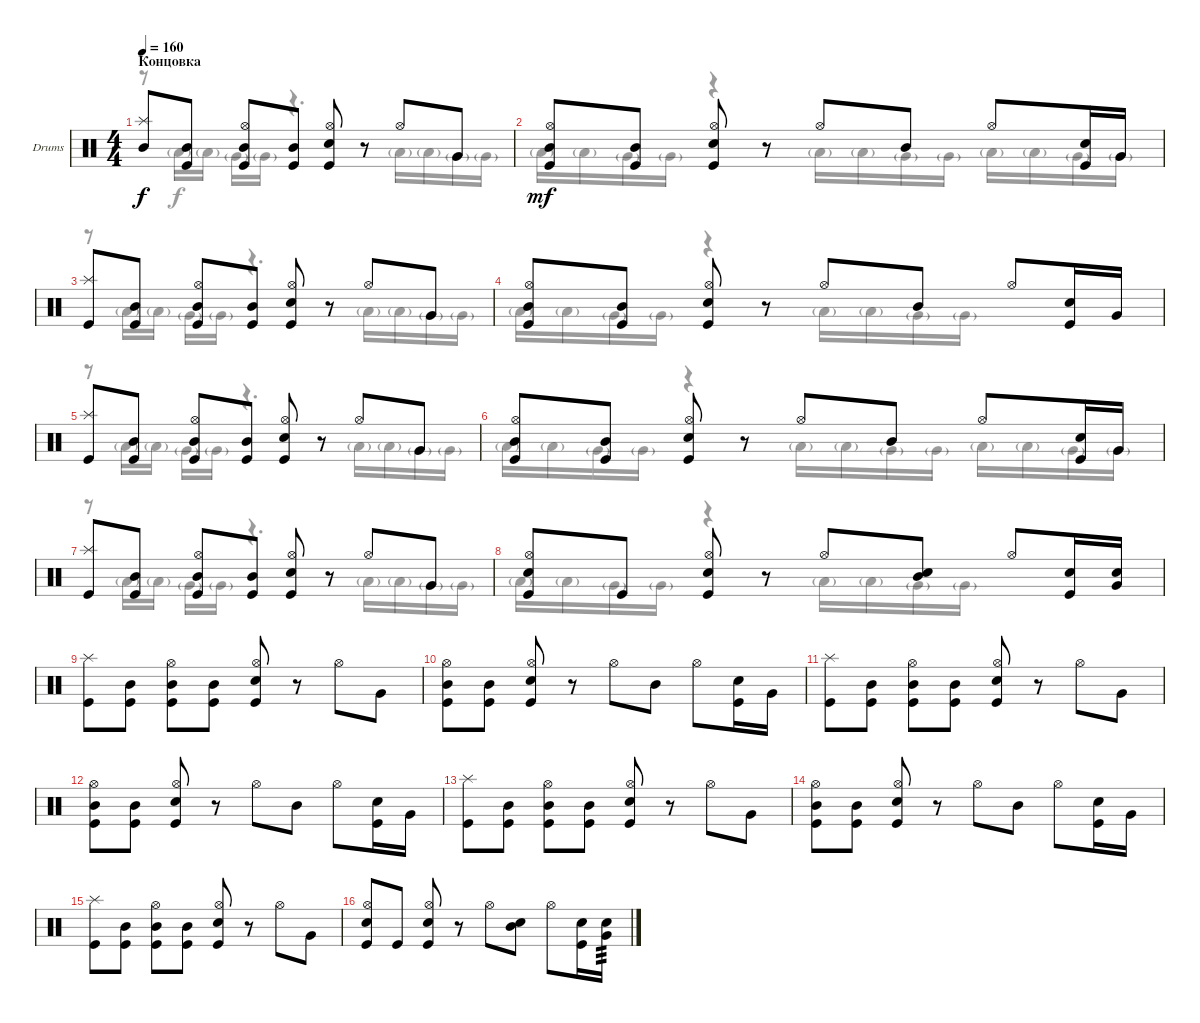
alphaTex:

\defaultSystemsLayout 4
\bracketExtendMode groupsimilarinstruments
\firstSystemTrackNameOrientation horizontal
\otherSystemsTrackNameOrientation horizontal
\track ("Drumkit" "Drums") {instrument percussion}
\staff {score}
\articulation defaults
\voice
\ts (4 4)
\section ("" "Концовка")
\tempo 160
\clef neutral
\ks c
("Mid Tom (hit)" "Splash (hit)").8{dy f} ("Kick (hit)" "Mid Tom (hit)").8 ("Kick (hit)" "Mid Tom (hit)" "Hi-Hat (open)").8 ("Kick (hit)" "Mid Tom (hit)").8 ("Kick (hit)" "Snare (hit) 2" "Hi-Hat (open)").8 r.8 "Hi-Hat (open)".8 "Very Low Tom (hit)".8 |
("Kick (hit)" "Mid Tom (hit)" "Hi-Hat (open)").8{dy mf} ("Kick (hit)" "Mid Tom (hit)").8 ("Kick (hit)" "Snare (hit) 2" "Hi-Hat (open)").8 r.8 "Hi-Hat (open)".8 "Mid Tom (hit)".8 "Hi-Hat (open)".8 ("Kick (hit)" "Snare (hit) 2").16 "Very Low Tom (hit)".16 |
("Splash (hit)" "Kick (hit)").8 ("Kick (hit)" "Mid Tom (hit)").8 ("Kick (hit)" "Mid Tom (hit)" "Hi-Hat (open)").8 ("Kick (hit)" "Mid Tom (hit)").8 ("Kick (hit)" "Snare (hit) 2" "Hi-Hat (open)").8 r.8 "Hi-Hat (open)".8 "Very Low Tom (hit)".8 |
("Kick (hit)" "Mid Tom (hit)" "Hi-Hat (open)").8 ("Kick (hit)" "Mid Tom (hit)").8 ("Kick (hit)" "Snare (hit) 2" "Hi-Hat (open)").8 r.8 "Hi-Hat (open)".8 "Mid Tom (hit)".8 "Hi-Hat (open)".8 ("Kick (hit)" "Snare (hit) 2").16 "Very Low Tom (hit)".16 |
("Splash (hit)" "Kick (hit)").8 ("Kick (hit)" "Mid Tom (hit)").8 ("Kick (hit)" "Mid Tom (hit)" "Hi-Hat (open)").8 ("Kick (hit)" "Mid Tom (hit)").8 ("Kick (hit)" "Snare (hit) 2" "Hi-Hat (open)").8 r.8 "Hi-Hat (open)".8 "Very Low Tom (hit)".8 |
("Kick (hit)" "Mid Tom (hit)" "Hi-Hat (open)").8 ("Kick (hit)" "Mid Tom (hit)").8 ("Kick (hit)" "Snare (hit) 2" "Hi-Hat (open)").8 r.8 "Hi-Hat (open)".8 "Mid Tom (hit)".8 "Hi-Hat (open)".8 ("Kick (hit)" "Snare (hit) 2").16 "Very Low Tom (hit)".16 |
("Splash (hit)" "Kick (hit)").8 ("Kick (hit)" "Mid Tom (hit)").8 ("Kick (hit)" "Mid Tom (hit)" "Hi-Hat (open)").8 ("Kick (hit)" "Mid Tom (hit)").8 ("Kick (hit)" "Snare (hit) 2" "Hi-Hat (open)").8 r.8 "Hi-Hat (open)".8 "Very Low Tom (hit)".8 |
("Kick (hit)" "Hi-Hat (open)" "Snare (hit) 2").8 "Kick (hit)".8 ("Kick (hit)" "Snare (hit) 2" "Hi-Hat (open)").8 r.8 "Hi-Hat (open)".8 ("Mid Tom (hit)" "Snare (hit) 2").8 "Hi-Hat (open)".8 ("Kick (hit)" "Snare (hit) 2").16 ("Very Low Tom (hit)" "Snare (hit) 2").16 |
("Splash (hit)" "Kick (hit)").8 ("Kick (hit)" "Mid Tom (hit)").8 ("Kick (hit)" "Mid Tom (hit)" "Hi-Hat (open)").8 ("Kick (hit)" "Mid Tom (hit)").8 ("Kick (hit)" "Snare (hit) 2" "Hi-Hat (open)").8 r.8 "Hi-Hat (open)".8 "Very Low Tom (hit)".8 |
("Kick (hit)" "Mid Tom (hit)" "Hi-Hat (open)").8 ("Kick (hit)" "Mid Tom (hit)").8 ("Kick (hit)" "Snare (hit) 2" "Hi-Hat (open)").8 r.8 "Hi-Hat (open)".8 "Mid Tom (hit)".8 "Hi-Hat (open)".8 ("Kick (hit)" "Snare (hit) 2").16 "Very Low Tom (hit)".16 |
("Splash (hit)" "Kick (hit)").8 ("Kick (hit)" "Mid Tom (hit)").8 ("Kick (hit)" "Mid Tom (hit)" "Hi-Hat (open)").8 ("Kick (hit)" "Mid Tom (hit)").8 ("Kick (hit)" "Snare (hit) 2" "Hi-Hat (open)").8 r.8 "Hi-Hat (open)".8 "Very Low Tom (hit)".8 |
("Kick (hit)" "Mid Tom (hit)" "Hi-Hat (open)").8 ("Kick (hit)" "Mid Tom (hit)").8 ("Kick (hit)" "Snare (hit) 2" "Hi-Hat (open)").8 r.8 "Hi-Hat (open)".8 "Mid Tom (hit)".8 "Hi-Hat (open)".8 ("Kick (hit)" "Snare (hit) 2").16 "Very Low Tom (hit)".16 |
("Splash (hit)" "Kick (hit)").8 ("Kick (hit)" "Mid Tom (hit)").8 ("Kick (hit)" "Mid Tom (hit)" "Hi-Hat (open)").8 ("Kick (hit)" "Mid Tom (hit)").8 ("Kick (hit)" "Snare (hit) 2" "Hi-Hat (open)").8 r.8 "Hi-Hat (open)".8 "Very Low Tom (hit)".8 |
("Kick (hit)" "Mid Tom (hit)" "Hi-Hat (open)").8 ("Kick (hit)" "Mid Tom (hit)").8 ("Kick (hit)" "Snare (hit) 2" "Hi-Hat (open)").8 r.8 "Hi-Hat (open)".8 "Mid Tom (hit)".8 "Hi-Hat (open)".8 ("Kick (hit)" "Snare (hit) 2").16 "Very Low Tom (hit)".16 |
("Splash (hit)" "Kick (hit)").8 ("Kick (hit)" "Mid Tom (hit)").8 ("Kick (hit)" "Mid Tom (hit)" "Hi-Hat (open)").8 ("Kick (hit)" "Mid Tom (hit)").8 ("Kick (hit)" "Snare (hit) 2" "Hi-Hat (open)").8 r.8 "Hi-Hat (open)".8 "Very Low Tom (hit)".8 |
("Kick (hit)" "Hi-Hat (open)" "Snare (hit) 2").8 "Kick (hit)".8 ("Kick (hit)" "Snare (hit) 2" "Hi-Hat (open)").8 r.8 "Hi-Hat (open)".8 ("Mid Tom (hit)" "Snare (hit) 2").8 "Hi-Hat (open)".8 ("Kick (hit)" "Snare (hit) 2").16 ("Very Low Tom (hit)" "Snare (hit) 2").16{tp 3}
\voice
\clef neutral
\ottava regular
\simile none
\ks c
r.8{dy f} "Low Tom (hit)"{g}.16 "Low Tom (hit)"{g}.16 "Very Low Tom (hit)"{g}.16 "Very Low Tom (hit)"{g}.16 r.4{d} "Low Tom (hit)"{g}.16 "Low Tom (hit)"{g}.16 "Very Low Tom (hit)"{g}.16 "Very Low Tom (hit)"{g}.16 |
"Low Tom (hit)"{g}.16 "Low Tom (hit)"{g}.16 "Very Low Tom (hit)"{g}.16 "Very Low Tom (hit)"{g}.16 r.4 "Low Tom (hit)"{g}.16 "Low Tom (hit)"{g}.16 "Very Low Tom (hit)"{g}.16 "Very Low Tom (hit)"{g}.16 "Low Tom (hit)"{g}.16 "Low Tom (hit)"{g}.16 "Very Low Tom (hit)"{g}.16 "Very Low Tom (hit)"{g}.16 |
r.8 "Low Tom (hit)"{g}.16 "Low Tom (hit)"{g}.16 "Very Low Tom (hit)"{g}.16 "Very Low Tom (hit)"{g}.16 r.4{d} "Low Tom (hit)"{g}.16 "Low Tom (hit)"{g}.16 "Very Low Tom (hit)"{g}.16 "Very Low Tom (hit)"{g}.16 |
"Low Tom (hit)"{g}.16 "Low Tom (hit)"{g}.16 "Very Low Tom (hit)"{g}.16 "Very Low Tom (hit)"{g}.16 r.4 "Low Tom (hit)"{g}.16 "Low Tom (hit)"{g}.16 "Very Low Tom (hit)"{g}.16 "Very Low Tom (hit)"{g}.16 |
r.8 "Low Tom (hit)"{g}.16 "Low Tom (hit)"{g}.16 "Very Low Tom (hit)"{g}.16 "Very Low Tom (hit)"{g}.16 r.4{d} "Low Tom (hit)"{g}.16 "Low Tom (hit)"{g}.16 "Very Low Tom (hit)"{g}.16 "Very Low Tom (hit)"{g}.16 |
"Low Tom (hit)"{g}.16 "Low Tom (hit)"{g}.16 "Very Low Tom (hit)"{g}.16 "Very Low Tom (hit)"{g}.16 r.4 "Low Tom (hit)"{g}.16 "Low Tom (hit)"{g}.16 "Very Low Tom (hit)"{g}.16 "Very Low Tom (hit)"{g}.16 "Low Tom (hit)"{g}.16 "Low Tom (hit)"{g}.16 "Very Low Tom (hit)"{g}.16 "Very Low Tom (hit)"{g}.16 |
r.8 "Low Tom (hit)"{g}.16 "Low Tom (hit)"{g}.16 "Very Low Tom (hit)"{g}.16 "Very Low Tom (hit)"{g}.16 r.4{d} "Low Tom (hit)"{g}.16 "Low Tom (hit)"{g}.16 "Very Low Tom (hit)"{g}.16 "Very Low Tom (hit)"{g}.16 |
"Low Tom (hit)"{g}.16 "Low Tom (hit)"{g}.16 "Very Low Tom (hit)"{g}.16 "Very Low Tom (hit)"{g}.16 r.4 "Low Tom (hit)"{g}.16 "Low Tom (hit)"{g}.16 "Very Low Tom (hit)"{g}.16 "Very Low Tom (hit)"{g}.16 |
|
|
|
|
|
|
|
